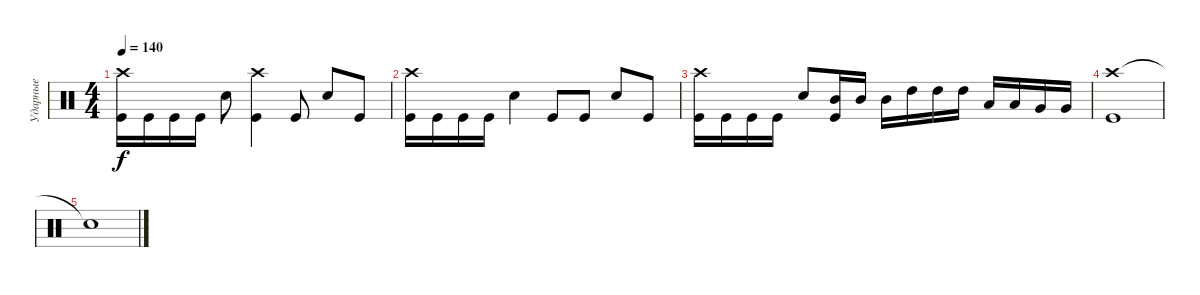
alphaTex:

\track ("Ударные" "Ударные") {instrument percussion}
\staff {score}
\articulation defaults
\ts (4 4)
\tempo 140
\clef neutral
\ks c
("Crash high (hit)" "Kick (hit)").16{dy f} "Kick (hit)".16 "Kick (hit)".16 "Kick (hit)".16 "Electric Snare (hit)".8 ("Crash high (hit)" "Kick (hit)").4 "Kick (hit)".8 "Electric Snare (hit)".8 "Kick (hit)".8 |
("Crash high (hit)" "Kick (hit)").16 "Kick (hit)".16 "Kick (hit)".16 "Kick (hit)".16 "Electric Snare (hit)".4 "Kick (hit)".8 "Kick (hit)".8 "Electric Snare (hit)".8 "Kick (hit)".8 |
("Crash high (hit)" "Kick (hit)").16 "Kick (hit)".16 "Kick (hit)".16 "Kick (hit)".16 "Electric Snare (hit)".8 ("Mid Tom (hit)" "Kick (hit)").16 "Mid Tom (hit)".16 "Mid Tom (hit)".16 "High Tom (hit)".16 "High Tom (hit)".16 "High Tom (hit)".16 "Low Tom (hit)".16 "Low Tom (hit)".16 "Very Low Tom (hit)".16 "Very Low Tom (hit)".16 |
("Crash high (hit)" "Kick (hit)").1 |
"Snare (hit)"{t}.1
